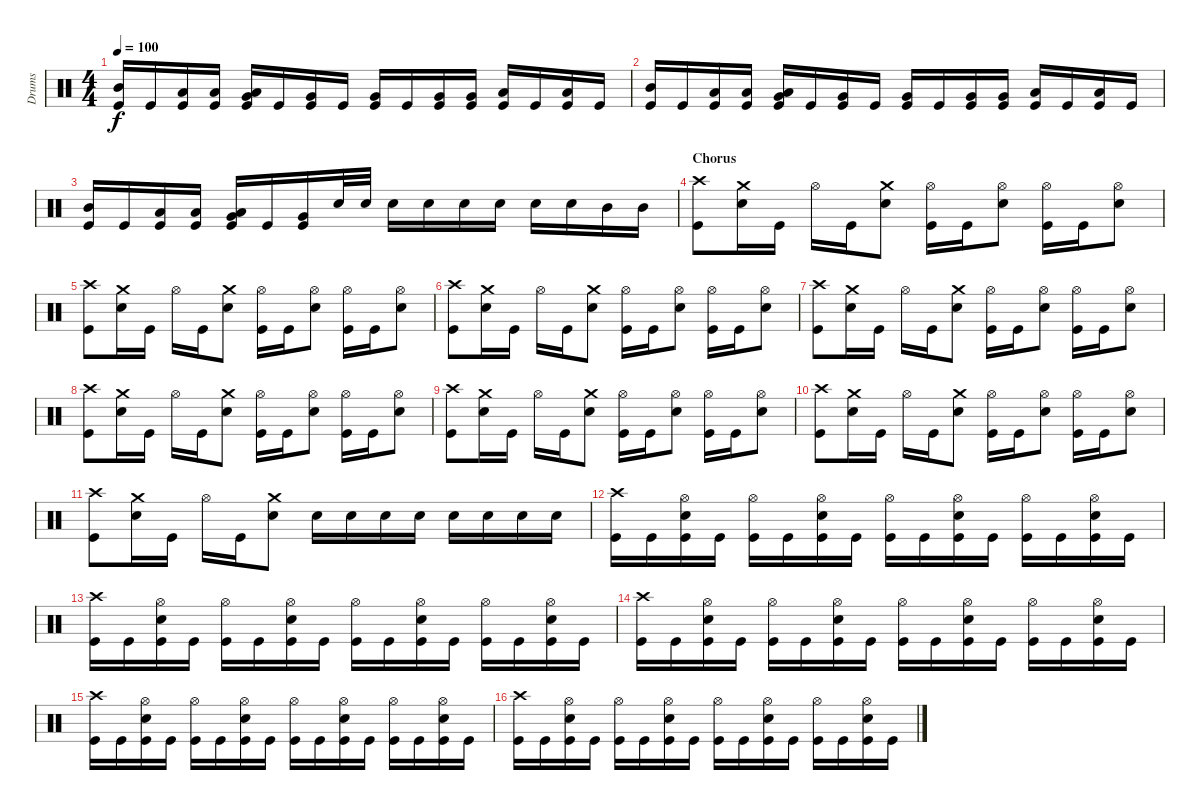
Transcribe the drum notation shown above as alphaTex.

\track ("Drums" "Drums") {instrument percussion}
\staff {score}
\articulation defaults
\ts (4 4)
\tempo 100
\clef neutral
\ks c
("Mid Tom (hit)" "Kick (hit)").16{dy f} "Kick (hit)".16 ("Low Tom (hit)" "Kick (hit)").16 ("Low Tom (hit)" "Kick (hit)").16 ("Very Low Tom (hit)" "Low Tom (hit)" "Kick (hit)").16 "Kick (hit)".16 ("Very Low Tom (hit)" "Kick (hit)").16 "Kick (hit)".16 ("Very Low Tom (hit)" "Kick (hit)").16 "Kick (hit)".16 ("Very Low Tom (hit)" "Kick (hit)").16 ("Very Low Tom (hit)" "Kick (hit)").16 ("Low Floor Tom (hit)" "Kick (hit)").16 "Kick (hit)".16 ("Low Floor Tom (hit)" "Kick (hit)").16 "Kick (hit)".16 |
("Mid Tom (hit)" "Kick (hit)").16 "Kick (hit)".16 ("Low Tom (hit)" "Kick (hit)").16 ("Low Tom (hit)" "Kick (hit)").16 ("Very Low Tom (hit)" "Low Tom (hit)" "Kick (hit)").16 "Kick (hit)".16 ("Very Low Tom (hit)" "Kick (hit)").16 "Kick (hit)".16 ("Very Low Tom (hit)" "Kick (hit)").16 "Kick (hit)".16 ("Very Low Tom (hit)" "Kick (hit)").16 ("Very Low Tom (hit)" "Kick (hit)").16 ("Low Floor Tom (hit)" "Kick (hit)").16 "Kick (hit)".16 ("Low Floor Tom (hit)" "Kick (hit)").16 "Kick (hit)".16 |
("Mid Tom (hit)" "Kick (hit)").16 "Kick (hit)".16 ("Low Tom (hit)" "Kick (hit)").16 ("Low Tom (hit)" "Kick (hit)").16 ("Very Low Tom (hit)" "Low Tom (hit)" "Kick (hit)").16 "Kick (hit)".16 ("Very Low Tom (hit)" "Kick (hit)").16 "Electric Snare (hit)".32 "Electric Snare (hit)".32 "Electric Snare (hit)".16 "Electric Snare (hit)".16 "Electric Snare (hit)".16 "Electric Snare (hit)".16 "Electric Snare (hit)".16 "Electric Snare (hit)".16 "Mid Tom (hit)".16 "Mid Tom (hit)".16 |
\section ("" "Chorus")
("Crash high (hit)" "Kick (hit)").8 ("Crash medium (hit)" "Electric Snare (hit)").16 "Kick (hit)".16 "Hi-Hat (open)".16 "Kick (hit)".16 ("Crash medium (hit)" "Electric Snare (hit)").8 ("Hi-Hat (open)" "Kick (hit)").16 "Kick (hit)".16 ("Hi-Hat (open)" "Electric Snare (hit)").8 ("Hi-Hat (open)" "Kick (hit)").16 "Kick (hit)".16 ("Hi-Hat (open)" "Electric Snare (hit)").8 |
("Crash high (hit)" "Kick (hit)").8 ("Crash medium (hit)" "Electric Snare (hit)").16 "Kick (hit)".16 "Hi-Hat (open)".16 "Kick (hit)".16 ("Crash medium (hit)" "Electric Snare (hit)").8 ("Hi-Hat (open)" "Kick (hit)").16 "Kick (hit)".16 ("Hi-Hat (open)" "Electric Snare (hit)").8 ("Hi-Hat (open)" "Kick (hit)").16 "Kick (hit)".16 ("Hi-Hat (open)" "Electric Snare (hit)").8 |
("Crash high (hit)" "Kick (hit)").8 ("Crash medium (hit)" "Electric Snare (hit)").16 "Kick (hit)".16 "Hi-Hat (open)".16 "Kick (hit)".16 ("Crash medium (hit)" "Electric Snare (hit)").8 ("Hi-Hat (open)" "Kick (hit)").16 "Kick (hit)".16 ("Hi-Hat (open)" "Electric Snare (hit)").8 ("Hi-Hat (open)" "Kick (hit)").16 "Kick (hit)".16 ("Hi-Hat (open)" "Electric Snare (hit)").8 |
("Crash high (hit)" "Kick (hit)").8 ("Crash medium (hit)" "Electric Snare (hit)").16 "Kick (hit)".16 "Hi-Hat (open)".16 "Kick (hit)".16 ("Crash medium (hit)" "Electric Snare (hit)").8 ("Hi-Hat (open)" "Kick (hit)").16 "Kick (hit)".16 ("Hi-Hat (open)" "Electric Snare (hit)").8 ("Hi-Hat (open)" "Kick (hit)").16 "Kick (hit)".16 ("Hi-Hat (open)" "Electric Snare (hit)").8 |
("Crash high (hit)" "Kick (hit)").8 ("Crash medium (hit)" "Electric Snare (hit)").16 "Kick (hit)".16 "Hi-Hat (open)".16 "Kick (hit)".16 ("Crash medium (hit)" "Electric Snare (hit)").8 ("Hi-Hat (open)" "Kick (hit)").16 "Kick (hit)".16 ("Hi-Hat (open)" "Electric Snare (hit)").8 ("Hi-Hat (open)" "Kick (hit)").16 "Kick (hit)".16 ("Hi-Hat (open)" "Electric Snare (hit)").8 |
("Crash high (hit)" "Kick (hit)").8 ("Crash medium (hit)" "Electric Snare (hit)").16 "Kick (hit)".16 "Hi-Hat (open)".16 "Kick (hit)".16 ("Crash medium (hit)" "Electric Snare (hit)").8 ("Hi-Hat (open)" "Kick (hit)").16 "Kick (hit)".16 ("Hi-Hat (open)" "Electric Snare (hit)").8 ("Hi-Hat (open)" "Kick (hit)").16 "Kick (hit)".16 ("Hi-Hat (open)" "Electric Snare (hit)").8 |
("Crash high (hit)" "Kick (hit)").8 ("Crash medium (hit)" "Electric Snare (hit)").16 "Kick (hit)".16 "Hi-Hat (open)".16 "Kick (hit)".16 ("Crash medium (hit)" "Electric Snare (hit)").8 ("Hi-Hat (open)" "Kick (hit)").16 "Kick (hit)".16 ("Hi-Hat (open)" "Electric Snare (hit)").8 ("Hi-Hat (open)" "Kick (hit)").16 "Kick (hit)".16 ("Hi-Hat (open)" "Electric Snare (hit)").8 |
("Crash high (hit)" "Kick (hit)").8 ("Crash medium (hit)" "Electric Snare (hit)").16 "Kick (hit)".16 "Hi-Hat (open)".16 "Kick (hit)".16 ("Crash medium (hit)" "Electric Snare (hit)").8 "Electric Snare (hit)".16 "Electric Snare (hit)".16 "Electric Snare (hit)".16 "Electric Snare (hit)".16 "Electric Snare (hit)".16 "Electric Snare (hit)".16 "Electric Snare (hit)".16 "Electric Snare (hit)".16 |
("Crash high (hit)" "Kick (hit)").16 "Kick (hit)".16 ("Hi-Hat (open)" "Electric Snare (hit)" "Kick (hit)").16 "Kick (hit)".16 ("Hi-Hat (open)" "Kick (hit)").16 "Kick (hit)".16 ("Hi-Hat (open)" "Electric Snare (hit)" "Kick (hit)").16 "Kick (hit)".16 ("Hi-Hat (open)" "Kick (hit)").16 "Kick (hit)".16 ("Hi-Hat (open)" "Electric Snare (hit)" "Kick (hit)").16 "Kick (hit)".16 ("Hi-Hat (open)" "Kick (hit)").16 "Kick (hit)".16 ("Hi-Hat (open)" "Electric Snare (hit)" "Kick (hit)").16 "Kick (hit)".16 |
("Crash high (hit)" "Kick (hit)").16 "Kick (hit)".16 ("Hi-Hat (open)" "Electric Snare (hit)" "Kick (hit)").16 "Kick (hit)".16 ("Hi-Hat (open)" "Kick (hit)").16 "Kick (hit)".16 ("Hi-Hat (open)" "Electric Snare (hit)" "Kick (hit)").16 "Kick (hit)".16 ("Hi-Hat (open)" "Kick (hit)").16 "Kick (hit)".16 ("Hi-Hat (open)" "Electric Snare (hit)" "Kick (hit)").16 "Kick (hit)".16 ("Hi-Hat (open)" "Kick (hit)").16 "Kick (hit)".16 ("Hi-Hat (open)" "Electric Snare (hit)" "Kick (hit)").16 "Kick (hit)".16 |
("Crash high (hit)" "Kick (hit)").16 "Kick (hit)".16 ("Hi-Hat (open)" "Electric Snare (hit)" "Kick (hit)").16 "Kick (hit)".16 ("Hi-Hat (open)" "Kick (hit)").16 "Kick (hit)".16 ("Hi-Hat (open)" "Electric Snare (hit)" "Kick (hit)").16 "Kick (hit)".16 ("Hi-Hat (open)" "Kick (hit)").16 "Kick (hit)".16 ("Hi-Hat (open)" "Electric Snare (hit)" "Kick (hit)").16 "Kick (hit)".16 ("Hi-Hat (open)" "Kick (hit)").16 "Kick (hit)".16 ("Hi-Hat (open)" "Electric Snare (hit)" "Kick (hit)").16 "Kick (hit)".16 |
("Crash high (hit)" "Kick (hit)").16 "Kick (hit)".16 ("Hi-Hat (open)" "Electric Snare (hit)" "Kick (hit)").16 "Kick (hit)".16 ("Hi-Hat (open)" "Kick (hit)").16 "Kick (hit)".16 ("Hi-Hat (open)" "Electric Snare (hit)" "Kick (hit)").16 "Kick (hit)".16 ("Hi-Hat (open)" "Kick (hit)").16 "Kick (hit)".16 ("Hi-Hat (open)" "Electric Snare (hit)" "Kick (hit)").16 "Kick (hit)".16 ("Hi-Hat (open)" "Kick (hit)").16 "Kick (hit)".16 ("Hi-Hat (open)" "Electric Snare (hit)" "Kick (hit)").16 "Kick (hit)".16 |
("Crash high (hit)" "Kick (hit)").16 "Kick (hit)".16 ("Hi-Hat (open)" "Electric Snare (hit)" "Kick (hit)").16 "Kick (hit)".16 ("Hi-Hat (open)" "Kick (hit)").16 "Kick (hit)".16 ("Hi-Hat (open)" "Electric Snare (hit)" "Kick (hit)").16 "Kick (hit)".16 ("Hi-Hat (open)" "Kick (hit)").16 "Kick (hit)".16 ("Hi-Hat (open)" "Electric Snare (hit)" "Kick (hit)").16 "Kick (hit)".16 ("Hi-Hat (open)" "Kick (hit)").16 "Kick (hit)".16 ("Hi-Hat (open)" "Electric Snare (hit)" "Kick (hit)").16 "Kick (hit)".16
